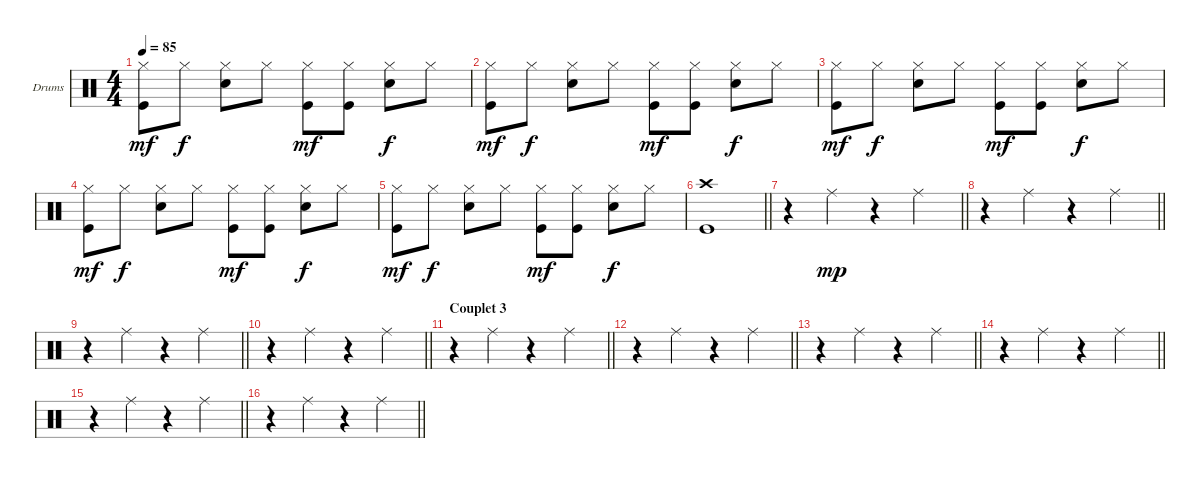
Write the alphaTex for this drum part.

\bracketExtendMode groupsimilarinstruments
\firstSystemTrackNameOrientation horizontal
\otherSystemsTrackNameOrientation horizontal
\chordDiagramsInScore
\track ("Drumkit" "Drums") {instrument percussion}
\staff {score}
\articulation defaults
\ts (4 4)
\tempo 85
\clef neutral
\ks c
("Hi-Hat (closed)" "Kick (hit)").8{dy mf} "Hi-Hat (closed)".8{dy f} ("Hi-Hat (closed)" "Snare (hit) 2").8 "Hi-Hat (closed)".8 ("Hi-Hat (closed)" "Kick (hit)").8{dy mf} ("Hi-Hat (closed)" "Kick (hit)").8 ("Hi-Hat (closed)" "Snare (hit) 2").8{dy f} "Hi-Hat (closed)".8 |
("Hi-Hat (closed)" "Kick (hit)").8{dy mf} "Hi-Hat (closed)".8{dy f} ("Hi-Hat (closed)" "Snare (hit) 2").8 "Hi-Hat (closed)".8 ("Hi-Hat (closed)" "Kick (hit)").8{dy mf} ("Hi-Hat (closed)" "Kick (hit)").8 ("Hi-Hat (closed)" "Snare (hit) 2").8{dy f} "Hi-Hat (closed)".8 |
("Hi-Hat (closed)" "Kick (hit)").8{dy mf} "Hi-Hat (closed)".8{dy f} ("Hi-Hat (closed)" "Snare (hit) 2").8 "Hi-Hat (closed)".8 ("Hi-Hat (closed)" "Kick (hit)").8{dy mf} ("Hi-Hat (closed)" "Kick (hit)").8 ("Hi-Hat (closed)" "Snare (hit) 2").8{dy f} "Hi-Hat (closed)".8 |
("Hi-Hat (closed)" "Kick (hit)").8{dy mf} "Hi-Hat (closed)".8{dy f} ("Hi-Hat (closed)" "Snare (hit) 2").8 "Hi-Hat (closed)".8 ("Hi-Hat (closed)" "Kick (hit)").8{dy mf} ("Hi-Hat (closed)" "Kick (hit)").8 ("Hi-Hat (closed)" "Snare (hit) 2").8{dy f} "Hi-Hat (closed)".8 |
("Hi-Hat (closed)" "Kick (hit)").8{dy mf} "Hi-Hat (closed)".8{dy f} ("Hi-Hat (closed)" "Snare (hit) 2").8 "Hi-Hat (closed)".8 ("Hi-Hat (closed)" "Kick (hit)").8{dy mf} ("Hi-Hat (closed)" "Kick (hit)").8 ("Hi-Hat (closed)" "Snare (hit) 2").8{dy f} "Hi-Hat (closed)".8 |
\barLineRight lightlight
("Crash high (hit)" "Kick (hit)").1 |
\barLineRight lightlight
r.4 "Ride (middle)".4{dy mp} r.4 "Ride (middle)".4 |
\barLineRight lightlight
r.4 "Ride (middle)".4 r.4 "Ride (middle)".4 |
\barLineRight lightlight
r.4 "Ride (middle)".4 r.4 "Ride (middle)".4 |
\barLineRight lightlight
r.4 "Ride (middle)".4 r.4 "Ride (middle)".4 |
\section ("" "Couplet 3")
\barLineRight lightlight
r.4 "Ride (middle)".4 r.4 "Ride (middle)".4 |
\barLineRight lightlight
r.4 "Ride (middle)".4 r.4 "Ride (middle)".4 |
\barLineRight lightlight
r.4 "Ride (middle)".4 r.4 "Ride (middle)".4 |
\barLineRight lightlight
r.4 "Ride (middle)".4 r.4 "Ride (middle)".4 |
\barLineRight lightlight
r.4 "Ride (middle)".4 r.4 "Ride (middle)".4 |
\barLineRight lightlight
r.4 "Ride (middle)".4 r.4 "Ride (middle)".4
